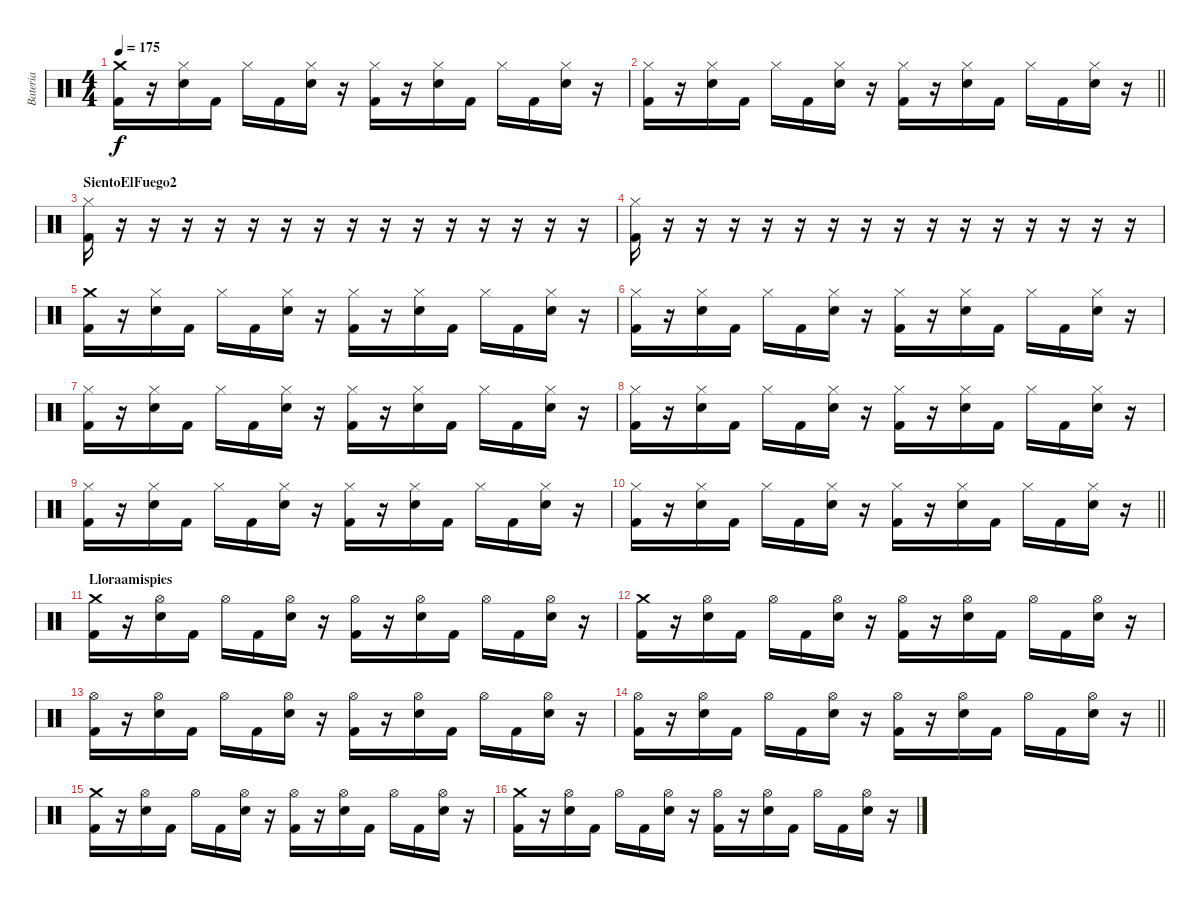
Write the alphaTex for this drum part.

\track ("Bateria" "Bateria") {instrument percussion}
\staff {score}
\articulation defaults
\ts (4 4)
\tempo 175
\clef neutral
\ks c
("Crash medium (hit)" "Kick (hit) 2").16{dy f} r.16 ("Hi-Hat (closed)" "Snare (hit) 2").16 "Kick (hit) 2".16 "Hi-Hat (closed)".16 "Kick (hit) 2".16 ("Hi-Hat (closed)" "Snare (hit) 2").16 r.16 ("Hi-Hat (closed)" "Kick (hit) 2").16 r.16 ("Hi-Hat (closed)" "Snare (hit) 2").16 "Kick (hit) 2".16 "Hi-Hat (closed)".16 "Kick (hit) 2".16 ("Hi-Hat (closed)" "Snare (hit) 2").16 r.16 |
\barLineRight lightlight
("Hi-Hat (closed)" "Kick (hit) 2").16 r.16 ("Hi-Hat (closed)" "Snare (hit) 2").16 "Kick (hit) 2".16 "Hi-Hat (closed)".16 "Kick (hit) 2".16 ("Hi-Hat (closed)" "Snare (hit) 2").16 r.16 ("Hi-Hat (closed)" "Kick (hit) 2").16 r.16 ("Hi-Hat (closed)" "Snare (hit) 2").16 "Kick (hit) 2".16 "Hi-Hat (closed)".16 "Kick (hit) 2".16 ("Hi-Hat (closed)" "Snare (hit) 2").16 r.16 |
\section ("" "SientoElFuego2")
("Hi-Hat (closed)" "Kick (hit) 2").16 r.16 r.16 r.16 r.16 r.16 r.16 r.16 r.16 r.16 r.16 r.16 r.16 r.16 r.16 r.16 |
("Hi-Hat (closed)" "Kick (hit) 2").16 r.16 r.16 r.16 r.16 r.16 r.16 r.16 r.16 r.16 r.16 r.16 r.16 r.16 r.16 r.16 |
("Crash medium (hit)" "Kick (hit) 2").16 r.16 ("Hi-Hat (closed)" "Snare (hit) 2").16 "Kick (hit) 2".16 "Hi-Hat (closed)".16 "Kick (hit) 2".16 ("Hi-Hat (closed)" "Snare (hit) 2").16 r.16 ("Hi-Hat (closed)" "Kick (hit) 2").16 r.16 ("Hi-Hat (closed)" "Snare (hit) 2").16 "Kick (hit) 2".16 "Hi-Hat (closed)".16 "Kick (hit) 2".16 ("Hi-Hat (closed)" "Snare (hit) 2").16 r.16 |
("Hi-Hat (closed)" "Kick (hit) 2").16 r.16 ("Hi-Hat (closed)" "Snare (hit) 2").16 "Kick (hit) 2".16 "Hi-Hat (closed)".16 "Kick (hit) 2".16 ("Hi-Hat (closed)" "Snare (hit) 2").16 r.16 ("Hi-Hat (closed)" "Kick (hit) 2").16 r.16 ("Hi-Hat (closed)" "Snare (hit) 2").16 "Kick (hit) 2".16 "Hi-Hat (closed)".16 "Kick (hit) 2".16 ("Hi-Hat (closed)" "Snare (hit) 2").16 r.16 |
("Hi-Hat (closed)" "Kick (hit) 2").16 r.16 ("Hi-Hat (closed)" "Snare (hit) 2").16 "Kick (hit) 2".16 "Hi-Hat (closed)".16 "Kick (hit) 2".16 ("Hi-Hat (closed)" "Snare (hit) 2").16 r.16 ("Hi-Hat (closed)" "Kick (hit) 2").16 r.16 ("Hi-Hat (closed)" "Snare (hit) 2").16 "Kick (hit) 2".16 "Hi-Hat (closed)".16 "Kick (hit) 2".16 ("Hi-Hat (closed)" "Snare (hit) 2").16 r.16 |
("Hi-Hat (closed)" "Kick (hit) 2").16 r.16 ("Hi-Hat (closed)" "Snare (hit) 2").16 "Kick (hit) 2".16 "Hi-Hat (closed)".16 "Kick (hit) 2".16 ("Hi-Hat (closed)" "Snare (hit) 2").16 r.16 ("Hi-Hat (closed)" "Kick (hit) 2").16 r.16 ("Hi-Hat (closed)" "Snare (hit) 2").16 "Kick (hit) 2".16 "Hi-Hat (closed)".16 "Kick (hit) 2".16 ("Hi-Hat (closed)" "Snare (hit) 2").16 r.16 |
("Hi-Hat (closed)" "Kick (hit) 2").16 r.16 ("Hi-Hat (closed)" "Snare (hit) 2").16 "Kick (hit) 2".16 "Hi-Hat (closed)".16 "Kick (hit) 2".16 ("Hi-Hat (closed)" "Snare (hit) 2").16 r.16 ("Hi-Hat (closed)" "Kick (hit) 2").16 r.16 ("Hi-Hat (closed)" "Snare (hit) 2").16 "Kick (hit) 2".16 "Hi-Hat (closed)".16 "Kick (hit) 2".16 ("Hi-Hat (closed)" "Snare (hit) 2").16 r.16 |
\barLineRight lightlight
("Hi-Hat (closed)" "Kick (hit) 2").16 r.16 ("Hi-Hat (closed)" "Snare (hit) 2").16 "Kick (hit) 2".16 "Hi-Hat (closed)".16 "Kick (hit) 2".16 ("Hi-Hat (closed)" "Snare (hit) 2").16 r.16 ("Hi-Hat (closed)" "Kick (hit) 2").16 r.16 ("Hi-Hat (closed)" "Snare (hit) 2").16 "Kick (hit) 2".16 "Hi-Hat (closed)".16 "Kick (hit) 2".16 ("Hi-Hat (closed)" "Snare (hit) 2").16 r.16 |
\section ("" "Lloraamispies")
("Crash medium (hit)" "Kick (hit) 2").16 r.16 ("Hi-Hat (open)" "Snare (hit) 2").16 "Kick (hit) 2".16 "Hi-Hat (open)".16 "Kick (hit) 2".16 ("Hi-Hat (open)" "Snare (hit) 2").16 r.16 ("Hi-Hat (open)" "Kick (hit) 2").16 r.16 ("Hi-Hat (open)" "Snare (hit) 2").16 "Kick (hit) 2".16 "Hi-Hat (open)".16 "Kick (hit) 2".16 ("Hi-Hat (open)" "Snare (hit) 2").16 r.16 |
("Crash medium (hit)" "Kick (hit) 2").16 r.16 ("Hi-Hat (open)" "Snare (hit) 2").16 "Kick (hit) 2".16 "Hi-Hat (open)".16 "Kick (hit) 2".16 ("Hi-Hat (open)" "Snare (hit) 2").16 r.16 ("Hi-Hat (open)" "Kick (hit) 2").16 r.16 ("Hi-Hat (open)" "Snare (hit) 2").16 "Kick (hit) 2".16 "Hi-Hat (open)".16 "Kick (hit) 2".16 ("Hi-Hat (open)" "Snare (hit) 2").16 r.16 |
("Hi-Hat (open)" "Kick (hit) 2").16 r.16 ("Hi-Hat (open)" "Snare (hit) 2").16 "Kick (hit) 2".16 "Hi-Hat (open)".16 "Kick (hit) 2".16 ("Hi-Hat (open)" "Snare (hit) 2").16 r.16 ("Hi-Hat (open)" "Kick (hit) 2").16 r.16 ("Hi-Hat (open)" "Snare (hit) 2").16 "Kick (hit) 2".16 "Hi-Hat (open)".16 "Kick (hit) 2".16 ("Hi-Hat (open)" "Snare (hit) 2").16 r.16 |
\barLineRight lightlight
("Hi-Hat (open)" "Kick (hit) 2").16 r.16 ("Hi-Hat (open)" "Snare (hit) 2").16 "Kick (hit) 2".16 "Hi-Hat (open)".16 "Kick (hit) 2".16 ("Hi-Hat (open)" "Snare (hit) 2").16 r.16 ("Hi-Hat (open)" "Kick (hit) 2").16 r.16 ("Hi-Hat (open)" "Snare (hit) 2").16 "Kick (hit) 2".16 "Hi-Hat (open)".16 "Kick (hit) 2".16 ("Hi-Hat (open)" "Snare (hit) 2").16 r.16 |
("Crash medium (hit)" "Kick (hit) 2").16 r.16 ("Hi-Hat (open)" "Snare (hit) 2").16 "Kick (hit) 2".16 "Hi-Hat (open)".16 "Kick (hit) 2".16 ("Hi-Hat (open)" "Snare (hit) 2").16 r.16 ("Hi-Hat (open)" "Kick (hit) 2").16 r.16 ("Hi-Hat (open)" "Snare (hit) 2").16 "Kick (hit) 2".16 "Hi-Hat (open)".16 "Kick (hit) 2".16 ("Hi-Hat (open)" "Snare (hit) 2").16 r.16 |
("Crash medium (hit)" "Kick (hit) 2").16 r.16 ("Hi-Hat (open)" "Snare (hit) 2").16 "Kick (hit) 2".16 "Hi-Hat (open)".16 "Kick (hit) 2".16 ("Hi-Hat (open)" "Snare (hit) 2").16 r.16 ("Hi-Hat (open)" "Kick (hit) 2").16 r.16 ("Hi-Hat (open)" "Snare (hit) 2").16 "Kick (hit) 2".16 "Hi-Hat (open)".16 "Kick (hit) 2".16 ("Hi-Hat (open)" "Snare (hit) 2").16 r.16
